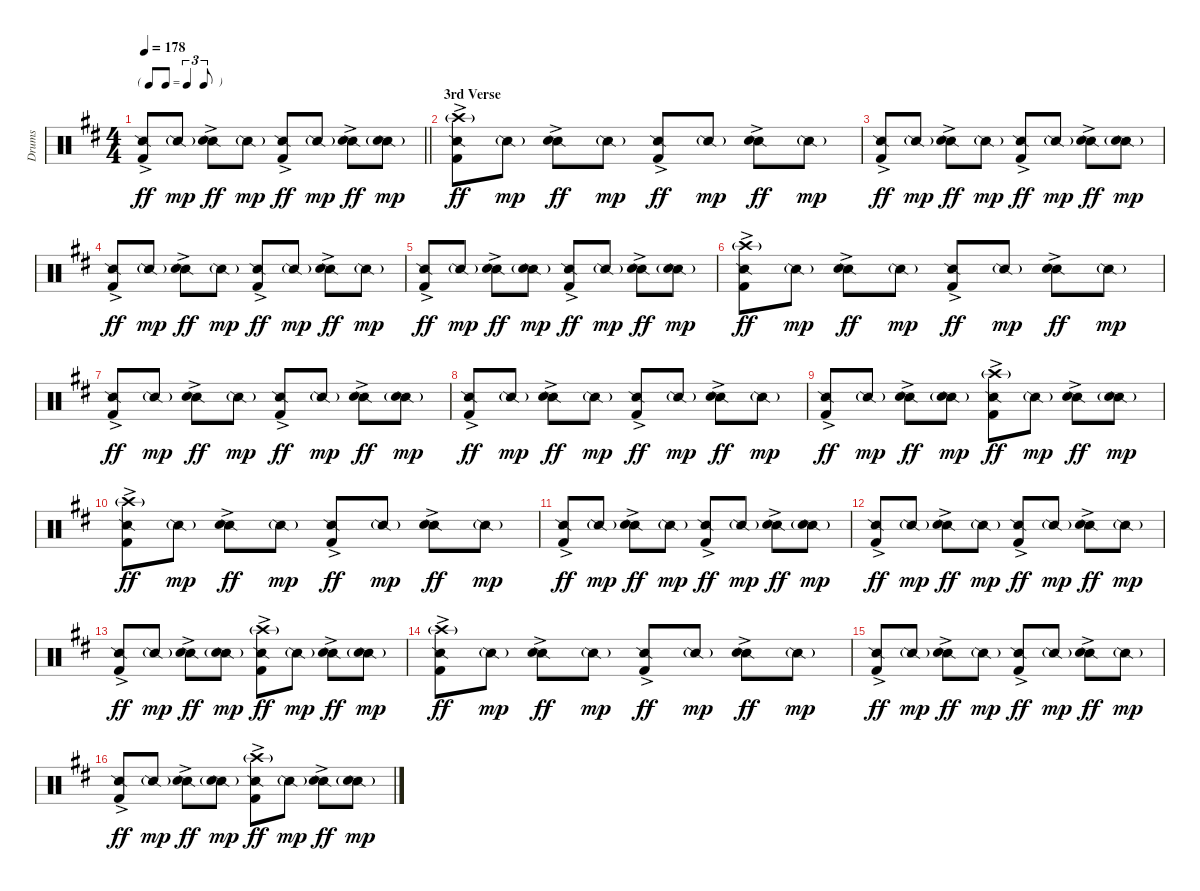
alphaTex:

\track ("Drums" "Drums") {instrument percussion}
\staff {score}
\articulation defaults
\ts (4 4)
\tf triplet8th
\tempo 178
\clef neutral
\barLineRight lightlight
\ks d
("Snare (side stick) 2" "Kick (hit) 2"{ac}).8{dy ff} "Snare (side stick) 2"{g}.8{dy mp} ("Snare (side stick) 2" "Snare (hit) 2"{ac}).8{dy ff} "Snare (side stick) 2"{g}.8{dy mp} ("Snare (side stick) 2" "Kick (hit) 2"{ac}).8{dy ff} "Snare (side stick) 2"{g}.8{dy mp} ("Snare (side stick) 2" "Snare (hit) 2"{ac}).8{dy ff} ("Snare (side stick) 2"{g} "Snare (hit) 2").8{dy mp} |
\section ("" "3rd Verse")
("Snare (side stick) 2" "Crash high (hit)"{g} "Kick (hit) 2"{ac}).8{dy ff} "Snare (side stick) 2"{g}.8{dy mp} ("Snare (side stick) 2" "Snare (hit) 2"{ac}).8{dy ff} "Snare (side stick) 2"{g}.8{dy mp} ("Snare (side stick) 2" "Kick (hit) 2"{ac}).8{dy ff} "Snare (side stick) 2"{g}.8{dy mp} ("Snare (side stick) 2" "Snare (hit) 2"{ac}).8{dy ff} "Snare (side stick) 2"{g}.8{dy mp} |
("Snare (side stick) 2" "Kick (hit) 2"{ac}).8{dy ff} "Snare (side stick) 2"{g}.8{dy mp} ("Snare (side stick) 2" "Snare (hit) 2"{ac}).8{dy ff} "Snare (side stick) 2"{g}.8{dy mp} ("Snare (side stick) 2" "Kick (hit) 2"{ac}).8{dy ff} "Snare (side stick) 2"{g}.8{dy mp} ("Snare (side stick) 2" "Snare (hit) 2"{ac}).8{dy ff} ("Snare (side stick) 2"{g} "Snare (hit) 2").8{dy mp} |
("Snare (side stick) 2" "Kick (hit) 2"{ac}).8{dy ff} "Snare (side stick) 2"{g}.8{dy mp} ("Snare (side stick) 2" "Snare (hit) 2"{ac}).8{dy ff} "Snare (side stick) 2"{g}.8{dy mp} ("Snare (side stick) 2" "Kick (hit) 2"{ac}).8{dy ff} "Snare (side stick) 2"{g}.8{dy mp} ("Snare (side stick) 2" "Snare (hit) 2"{ac}).8{dy ff} "Snare (side stick) 2"{g}.8{dy mp} |
("Snare (side stick) 2" "Kick (hit) 2"{ac}).8{dy ff} "Snare (side stick) 2"{g}.8{dy mp} ("Snare (side stick) 2" "Snare (hit) 2"{ac}).8{dy ff} ("Snare (side stick) 2"{g} "Snare (hit) 2").8{dy mp} ("Snare (side stick) 2" "Kick (hit) 2"{ac}).8{dy ff} "Snare (side stick) 2"{g}.8{dy mp} ("Snare (side stick) 2" "Snare (hit) 2"{ac}).8{dy ff} ("Snare (side stick) 2"{g} "Snare (hit) 2").8{dy mp} |
("Snare (side stick) 2" "Crash high (hit)"{g} "Kick (hit) 2"{ac}).8{dy ff} "Snare (side stick) 2"{g}.8{dy mp} ("Snare (side stick) 2" "Snare (hit) 2"{ac}).8{dy ff} "Snare (side stick) 2"{g}.8{dy mp} ("Snare (side stick) 2" "Kick (hit) 2"{ac}).8{dy ff} "Snare (side stick) 2"{g}.8{dy mp} ("Snare (side stick) 2" "Snare (hit) 2"{ac}).8{dy ff} "Snare (side stick) 2"{g}.8{dy mp} |
("Snare (side stick) 2" "Kick (hit) 2"{ac}).8{dy ff} "Snare (side stick) 2"{g}.8{dy mp} ("Snare (side stick) 2" "Snare (hit) 2"{ac}).8{dy ff} "Snare (side stick) 2"{g}.8{dy mp} ("Snare (side stick) 2" "Kick (hit) 2"{ac}).8{dy ff} "Snare (side stick) 2"{g}.8{dy mp} ("Snare (side stick) 2" "Snare (hit) 2"{ac}).8{dy ff} ("Snare (side stick) 2"{g} "Snare (hit) 2").8{dy mp} |
("Snare (side stick) 2" "Kick (hit) 2"{ac}).8{dy ff} "Snare (side stick) 2"{g}.8{dy mp} ("Snare (side stick) 2" "Snare (hit) 2"{ac}).8{dy ff} "Snare (side stick) 2"{g}.8{dy mp} ("Snare (side stick) 2" "Kick (hit) 2"{ac}).8{dy ff} "Snare (side stick) 2"{g}.8{dy mp} ("Snare (side stick) 2" "Snare (hit) 2"{ac}).8{dy ff} "Snare (side stick) 2"{g}.8{dy mp} |
("Snare (side stick) 2" "Kick (hit) 2"{ac}).8{dy ff} "Snare (side stick) 2"{g}.8{dy mp} ("Snare (side stick) 2" "Snare (hit) 2"{ac}).8{dy ff} ("Snare (side stick) 2"{g} "Snare (hit) 2").8{dy mp} ("Snare (side stick) 2" "Crash high (hit)"{g} "Kick (hit) 2"{ac}).8{dy ff} "Snare (side stick) 2"{g}.8{dy mp} ("Snare (side stick) 2" "Snare (hit) 2"{ac}).8{dy ff} ("Snare (side stick) 2"{g} "Snare (hit) 2").8{dy mp} |
("Snare (side stick) 2" "Crash high (hit)"{g} "Kick (hit) 2"{ac}).8{dy ff} "Snare (side stick) 2"{g}.8{dy mp} ("Snare (side stick) 2" "Snare (hit) 2"{ac}).8{dy ff} "Snare (side stick) 2"{g}.8{dy mp} ("Snare (side stick) 2" "Kick (hit) 2"{ac}).8{dy ff} "Snare (side stick) 2"{g}.8{dy mp} ("Snare (side stick) 2" "Snare (hit) 2"{ac}).8{dy ff} "Snare (side stick) 2"{g}.8{dy mp} |
("Snare (side stick) 2" "Kick (hit) 2"{ac}).8{dy ff} "Snare (side stick) 2"{g}.8{dy mp} ("Snare (side stick) 2" "Snare (hit) 2"{ac}).8{dy ff} "Snare (side stick) 2"{g}.8{dy mp} ("Snare (side stick) 2" "Kick (hit) 2"{ac}).8{dy ff} "Snare (side stick) 2"{g}.8{dy mp} ("Snare (side stick) 2" "Snare (hit) 2"{ac}).8{dy ff} ("Snare (side stick) 2"{g} "Snare (hit) 2").8{dy mp} |
("Snare (side stick) 2" "Kick (hit) 2"{ac}).8{dy ff} "Snare (side stick) 2"{g}.8{dy mp} ("Snare (side stick) 2" "Snare (hit) 2"{ac}).8{dy ff} "Snare (side stick) 2"{g}.8{dy mp} ("Snare (side stick) 2" "Kick (hit) 2"{ac}).8{dy ff} "Snare (side stick) 2"{g}.8{dy mp} ("Snare (side stick) 2" "Snare (hit) 2"{ac}).8{dy ff} "Snare (side stick) 2"{g}.8{dy mp} |
("Snare (side stick) 2" "Kick (hit) 2"{ac}).8{dy ff} "Snare (side stick) 2"{g}.8{dy mp} ("Snare (side stick) 2" "Snare (hit) 2"{ac}).8{dy ff} ("Snare (side stick) 2"{g} "Snare (hit) 2").8{dy mp} ("Snare (side stick) 2" "Crash high (hit)"{g} "Kick (hit) 2"{ac}).8{dy ff} "Snare (side stick) 2"{g}.8{dy mp} ("Snare (side stick) 2" "Snare (hit) 2"{ac}).8{dy ff} ("Snare (side stick) 2"{g} "Snare (hit) 2").8{dy mp} |
("Snare (side stick) 2" "Crash high (hit)"{g} "Kick (hit) 2"{ac}).8{dy ff} "Snare (side stick) 2"{g}.8{dy mp} ("Snare (side stick) 2" "Snare (hit) 2"{ac}).8{dy ff} "Snare (side stick) 2"{g}.8{dy mp} ("Snare (side stick) 2" "Kick (hit) 2"{ac}).8{dy ff} "Snare (side stick) 2"{g}.8{dy mp} ("Snare (side stick) 2" "Snare (hit) 2"{ac}).8{dy ff} "Snare (side stick) 2"{g}.8{dy mp} |
("Snare (side stick) 2" "Kick (hit) 2"{ac}).8{dy ff} "Snare (side stick) 2"{g}.8{dy mp} ("Snare (side stick) 2" "Snare (hit) 2"{ac}).8{dy ff} "Snare (side stick) 2"{g}.8{dy mp} ("Snare (side stick) 2" "Kick (hit) 2"{ac}).8{dy ff} "Snare (side stick) 2"{g}.8{dy mp} ("Snare (side stick) 2" "Snare (hit) 2"{ac}).8{dy ff} "Snare (side stick) 2"{g}.8{dy mp} |
("Snare (side stick) 2" "Kick (hit) 2"{ac}).8{dy ff} "Snare (side stick) 2"{g}.8{dy mp} ("Snare (side stick) 2" "Snare (hit) 2"{ac}).8{dy ff} ("Snare (side stick) 2"{g} "Snare (hit) 2").8{dy mp} ("Snare (side stick) 2" "Crash high (hit)"{g} "Kick (hit) 2"{ac}).8{dy ff} "Snare (side stick) 2"{g}.8{dy mp} ("Snare (side stick) 2" "Snare (hit) 2"{ac}).8{dy ff} ("Snare (side stick) 2"{g} "Snare (hit) 2").8{dy mp}
